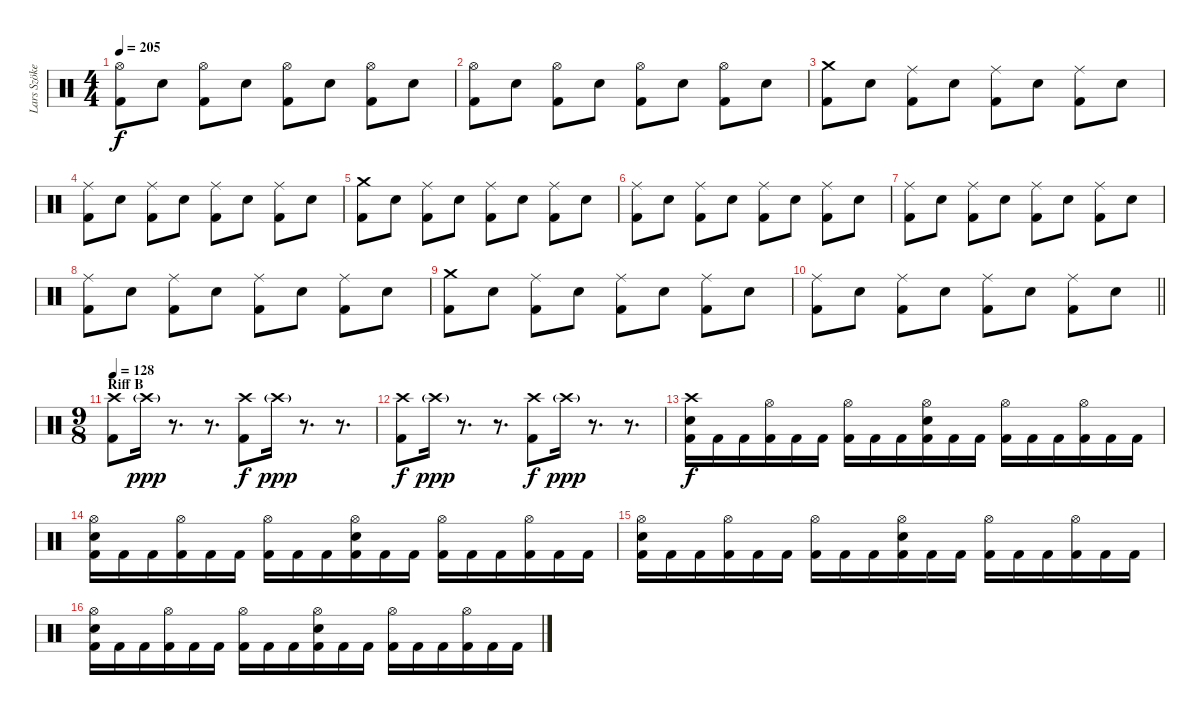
\track ("Lars Szöke" "Lars Szöke") {instrument percussion}
\staff {score}
\articulation defaults
\ts (4 4)
\tempo 205
\clef neutral
\ks c
("Hi-Hat (open)" "Kick (hit) 2").8{dy f} "Snare (hit) 2".8 ("Hi-Hat (open)" "Kick (hit) 2").8 "Snare (hit) 2".8 ("Hi-Hat (open)" "Kick (hit) 2").8 "Snare (hit) 2".8 ("Hi-Hat (open)" "Kick (hit) 2").8 "Snare (hit) 2".8 |
("Hi-Hat (open)" "Kick (hit) 2").8 "Snare (hit) 2".8 ("Hi-Hat (open)" "Kick (hit) 2").8 "Snare (hit) 2".8 ("Hi-Hat (open)" "Kick (hit) 2").8 "Snare (hit) 2".8 ("Hi-Hat (open)" "Kick (hit) 2").8 "Snare (hit) 2".8 |
("Crash medium (hit)" "Kick (hit) 2").8 "Snare (hit) 2".8 ("Ride (middle)" "Kick (hit) 2").8 "Snare (hit) 2".8 ("Ride (middle)" "Kick (hit) 2").8 "Snare (hit) 2".8 ("Ride (middle)" "Kick (hit) 2").8 "Snare (hit) 2".8 |
("Ride (middle)" "Kick (hit) 2").8 "Snare (hit) 2".8 ("Ride (middle)" "Kick (hit) 2").8 "Snare (hit) 2".8 ("Ride (middle)" "Kick (hit) 2").8 "Snare (hit) 2".8 ("Ride (middle)" "Kick (hit) 2").8 "Snare (hit) 2".8 |
("Crash medium (hit)" "Kick (hit) 2").8 "Snare (hit) 2".8 ("Ride (middle)" "Kick (hit) 2").8 "Snare (hit) 2".8 ("Ride (middle)" "Kick (hit) 2").8 "Snare (hit) 2".8 ("Ride (middle)" "Kick (hit) 2").8 "Snare (hit) 2".8 |
("Ride (middle)" "Kick (hit) 2").8 "Snare (hit) 2".8 ("Ride (middle)" "Kick (hit) 2").8 "Snare (hit) 2".8 ("Ride (middle)" "Kick (hit) 2").8 "Snare (hit) 2".8 ("Ride (middle)" "Kick (hit) 2").8 "Snare (hit) 2".8 |
("Ride (middle)" "Kick (hit) 2").8 "Snare (hit) 2".8 ("Ride (middle)" "Kick (hit) 2").8 "Snare (hit) 2".8 ("Ride (middle)" "Kick (hit) 2").8 "Snare (hit) 2".8 ("Ride (middle)" "Kick (hit) 2").8 "Snare (hit) 2".8 |
("Ride (middle)" "Kick (hit) 2").8 "Snare (hit) 2".8 ("Ride (middle)" "Kick (hit) 2").8 "Snare (hit) 2".8 ("Ride (middle)" "Kick (hit) 2").8 "Snare (hit) 2".8 ("Ride (middle)" "Kick (hit) 2").8 "Snare (hit) 2".8 |
("Crash medium (hit)" "Kick (hit) 2").8 "Snare (hit) 2".8 ("Ride (middle)" "Kick (hit) 2").8 "Snare (hit) 2".8 ("Ride (middle)" "Kick (hit) 2").8 "Snare (hit) 2".8 ("Ride (middle)" "Kick (hit) 2").8 "Snare (hit) 2".8 |
\barLineRight lightlight
("Ride (middle)" "Kick (hit) 2").8 "Snare (hit) 2".8 ("Ride (middle)" "Kick (hit) 2").8 "Snare (hit) 2".8 ("Ride (middle)" "Kick (hit) 2").8 "Snare (hit) 2".8 ("Ride (middle)" "Kick (hit) 2").8 "Snare (hit) 2".8 |
\ts (9 8)
\section ("" "Riff B")
\tempo 128
("Crash high (hit)" "Kick (hit) 2").8 "Crash high (hit)"{g}.16{dy ppp} r.8{d} r.8{d} ("Crash high (hit)" "Kick (hit) 2").8{dy f} "Crash high (hit)"{g}.16{dy ppp} r.8{d} r.8{d} |
("Crash high (hit)" "Kick (hit) 2").8{dy f} "Crash high (hit)"{g}.16{dy ppp} r.8{d} r.8{d} ("Crash high (hit)" "Kick (hit) 2").8{dy f} "Crash high (hit)"{g}.16{dy ppp} r.8{d} r.8{d} |
("Crash high (hit)" "Snare (hit) 2" "Kick (hit) 2").16{dy f} "Kick (hit) 2".16 "Kick (hit) 2".16 ("Hi-Hat (open)" "Kick (hit) 2").16 "Kick (hit) 2".16 "Kick (hit) 2".16 ("Hi-Hat (open)" "Kick (hit) 2").16 "Kick (hit) 2".16 "Kick (hit) 2".16 ("Hi-Hat (open)" "Snare (hit) 2" "Kick (hit) 2").16 "Kick (hit) 2".16 "Kick (hit) 2".16 ("Hi-Hat (open)" "Kick (hit) 2").16 "Kick (hit) 2".16 "Kick (hit) 2".16 ("Hi-Hat (open)" "Kick (hit) 2").16 "Kick (hit) 2".16 "Kick (hit) 2".16 |
("Hi-Hat (open)" "Snare (hit) 2" "Kick (hit) 2").16 "Kick (hit) 2".16 "Kick (hit) 2".16 ("Hi-Hat (open)" "Kick (hit) 2").16 "Kick (hit) 2".16 "Kick (hit) 2".16 ("Hi-Hat (open)" "Kick (hit) 2").16 "Kick (hit) 2".16 "Kick (hit) 2".16 ("Hi-Hat (open)" "Snare (hit) 2" "Kick (hit) 2").16 "Kick (hit) 2".16 "Kick (hit) 2".16 ("Hi-Hat (open)" "Kick (hit) 2").16 "Kick (hit) 2".16 "Kick (hit) 2".16 ("Hi-Hat (open)" "Kick (hit) 2").16 "Kick (hit) 2".16 "Kick (hit) 2".16 |
("Hi-Hat (open)" "Snare (hit) 2" "Kick (hit) 2").16 "Kick (hit) 2".16 "Kick (hit) 2".16 ("Hi-Hat (open)" "Kick (hit) 2").16 "Kick (hit) 2".16 "Kick (hit) 2".16 ("Hi-Hat (open)" "Kick (hit) 2").16 "Kick (hit) 2".16 "Kick (hit) 2".16 ("Hi-Hat (open)" "Snare (hit) 2" "Kick (hit) 2").16 "Kick (hit) 2".16 "Kick (hit) 2".16 ("Hi-Hat (open)" "Kick (hit) 2").16 "Kick (hit) 2".16 "Kick (hit) 2".16 ("Hi-Hat (open)" "Kick (hit) 2").16 "Kick (hit) 2".16 "Kick (hit) 2".16 |
("Hi-Hat (open)" "Snare (hit) 2" "Kick (hit) 2").16 "Kick (hit) 2".16 "Kick (hit) 2".16 ("Hi-Hat (open)" "Kick (hit) 2").16 "Kick (hit) 2".16 "Kick (hit) 2".16 ("Hi-Hat (open)" "Kick (hit) 2").16 "Kick (hit) 2".16 "Kick (hit) 2".16 ("Hi-Hat (open)" "Snare (hit) 2" "Kick (hit) 2").16 "Kick (hit) 2".16 "Kick (hit) 2".16 ("Hi-Hat (open)" "Kick (hit) 2").16 "Kick (hit) 2".16 "Kick (hit) 2".16 ("Hi-Hat (open)" "Kick (hit) 2").16 "Kick (hit) 2".16 "Kick (hit) 2".16
